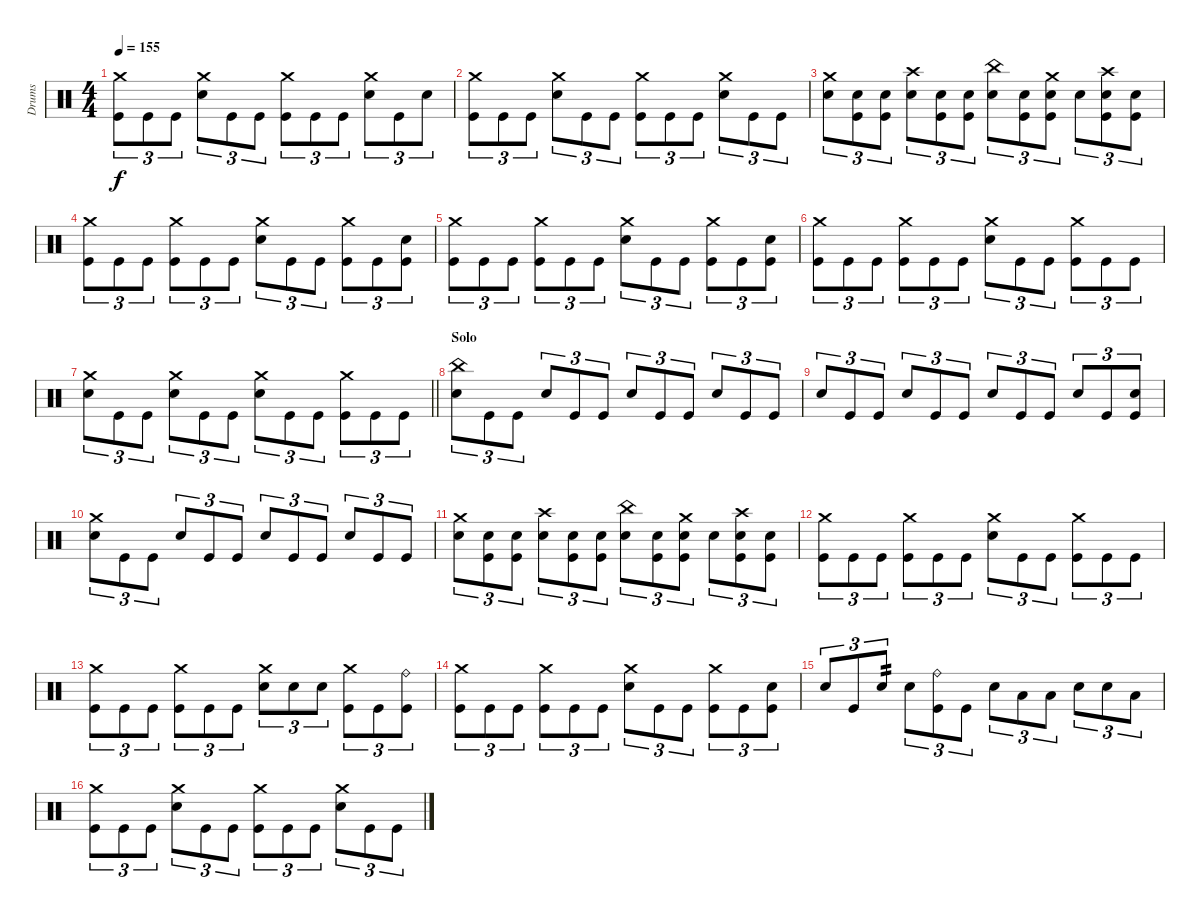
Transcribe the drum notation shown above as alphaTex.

\track ("Drums" "Drums") {instrument percussion}
\staff {score}
\articulation defaults
\ts (4 4)
\tempo 155
\clef neutral
\ks c
("Crash medium (hit)" "Kick (hit)").8{tu (3 2) dy f} "Kick (hit)".8{tu (3 2)} "Kick (hit)".8{tu (3 2)} ("Crash medium (hit)" "Electric Snare (hit)").8{tu (3 2)} "Kick (hit)".8{tu (3 2)} "Kick (hit)".8{tu (3 2)} ("Crash medium (hit)" "Kick (hit)").8{tu (3 2)} "Kick (hit)".8{tu (3 2)} "Kick (hit)".8{tu (3 2)} ("Crash medium (hit)" "Electric Snare (hit)").8{tu (3 2)} "Kick (hit)".8{tu (3 2)} "Electric Snare (hit)".8{tu (3 2)} |
("Crash medium (hit)" "Kick (hit)").8{tu (3 2)} "Kick (hit)".8{tu (3 2)} "Kick (hit)".8{tu (3 2)} ("Crash medium (hit)" "Electric Snare (hit)").8{tu (3 2)} "Kick (hit)".8{tu (3 2)} "Kick (hit)".8{tu (3 2)} ("Crash medium (hit)" "Kick (hit)").8{tu (3 2)} "Kick (hit)".8{tu (3 2)} "Kick (hit)".8{tu (3 2)} ("Crash medium (hit)" "Electric Snare (hit)").8{tu (3 2)} "Kick (hit)".8{tu (3 2)} "Kick (hit)".8{tu (3 2)} |
("Crash medium (hit)" "Electric Snare (hit)").8{tu (3 2)} ("Electric Snare (hit)" "Kick (hit)").8{tu (3 2)} ("Electric Snare (hit)" "Kick (hit)").8{tu (3 2)} ("Crash high (hit)" "Electric Snare (hit)").8{tu (3 2)} ("Electric Snare (hit)" "Kick (hit)").8{tu (3 2)} ("Electric Snare (hit)" "Kick (hit)").8{tu (3 2)} ("China (hit)" "Electric Snare (hit)").8{tu (3 2)} ("Electric Snare (hit)" "Kick (hit)").8{tu (3 2)} ("Crash medium (hit)" "Electric Snare (hit)" "Kick (hit)").8{tu (3 2)} "Electric Snare (hit)".8{tu (3 2)} ("Crash high (hit)" "Electric Snare (hit)" "Kick (hit)").8{tu (3 2)} ("Electric Snare (hit)" "Kick (hit)").8{tu (3 2)} |
("Crash medium (hit)" "Kick (hit)").8{tu (3 2)} "Kick (hit)".8{tu (3 2)} "Kick (hit)".8{tu (3 2)} ("Crash medium (hit)" "Kick (hit)").8{tu (3 2)} "Kick (hit)".8{tu (3 2)} "Kick (hit)".8{tu (3 2)} ("Crash medium (hit)" "Electric Snare (hit)").8{tu (3 2)} "Kick (hit)".8{tu (3 2)} "Kick (hit)".8{tu (3 2)} ("Crash medium (hit)" "Kick (hit)").8{tu (3 2)} "Kick (hit)".8{tu (3 2)} ("Electric Snare (hit)" "Kick (hit)").8{tu (3 2)} |
("Crash medium (hit)" "Kick (hit)").8{tu (3 2)} "Kick (hit)".8{tu (3 2)} "Kick (hit)".8{tu (3 2)} ("Crash medium (hit)" "Kick (hit)").8{tu (3 2)} "Kick (hit)".8{tu (3 2)} "Kick (hit)".8{tu (3 2)} ("Crash medium (hit)" "Electric Snare (hit)").8{tu (3 2)} "Kick (hit)".8{tu (3 2)} "Kick (hit)".8{tu (3 2)} ("Crash medium (hit)" "Kick (hit)").8{tu (3 2)} "Kick (hit)".8{tu (3 2)} ("Electric Snare (hit)" "Kick (hit)").8{tu (3 2)} |
("Crash medium (hit)" "Kick (hit)").8{tu (3 2)} "Kick (hit)".8{tu (3 2)} "Kick (hit)".8{tu (3 2)} ("Crash medium (hit)" "Kick (hit)").8{tu (3 2)} "Kick (hit)".8{tu (3 2)} "Kick (hit)".8{tu (3 2)} ("Crash medium (hit)" "Electric Snare (hit)").8{tu (3 2)} "Kick (hit)".8{tu (3 2)} "Kick (hit)".8{tu (3 2)} ("Crash medium (hit)" "Kick (hit)").8{tu (3 2)} "Kick (hit)".8{tu (3 2)} "Kick (hit)".8{tu (3 2)} |
\barLineRight lightlight
("Crash medium (hit)" "Electric Snare (hit)").8{tu (3 2)} "Kick (hit)".8{tu (3 2)} "Kick (hit)".8{tu (3 2)} ("Crash medium (hit)" "Electric Snare (hit)").8{tu (3 2)} "Kick (hit)".8{tu (3 2)} "Kick (hit)".8{tu (3 2)} ("Crash medium (hit)" "Electric Snare (hit)").8{tu (3 2)} "Kick (hit)".8{tu (3 2)} "Kick (hit)".8{tu (3 2)} ("Crash medium (hit)" "Kick (hit)").8{tu (3 2)} "Kick (hit)".8{tu (3 2)} "Kick (hit)".8{tu (3 2)} |
\section ("" "Solo")
("China (hit)" "Electric Snare (hit)").8{tu (3 2)} "Kick (hit)".8{tu (3 2)} "Kick (hit)".8{tu (3 2)} "Electric Snare (hit)".8{tu (3 2)} "Kick (hit)".8{tu (3 2)} "Kick (hit)".8{tu (3 2)} "Electric Snare (hit)".8{tu (3 2)} "Kick (hit)".8{tu (3 2)} "Kick (hit)".8{tu (3 2)} "Electric Snare (hit)".8{tu (3 2)} "Kick (hit)".8{tu (3 2)} "Kick (hit)".8{tu (3 2)} |
"Electric Snare (hit)".8{tu (3 2)} "Kick (hit)".8{tu (3 2)} "Kick (hit)".8{tu (3 2)} "Electric Snare (hit)".8{tu (3 2)} "Kick (hit)".8{tu (3 2)} "Kick (hit)".8{tu (3 2)} "Electric Snare (hit)".8{tu (3 2)} "Kick (hit)".8{tu (3 2)} "Kick (hit)".8{tu (3 2)} "Electric Snare (hit)".8{tu (3 2)} "Kick (hit)".8{tu (3 2)} ("Electric Snare (hit)" "Kick (hit)").8{tu (3 2)} |
("Crash medium (hit)" "Electric Snare (hit)").8{tu (3 2)} "Kick (hit)".8{tu (3 2)} "Kick (hit)".8{tu (3 2)} "Electric Snare (hit)".8{tu (3 2)} "Kick (hit)".8{tu (3 2)} "Kick (hit)".8{tu (3 2)} "Electric Snare (hit)".8{tu (3 2)} "Kick (hit)".8{tu (3 2)} "Kick (hit)".8{tu (3 2)} "Electric Snare (hit)".8{tu (3 2)} "Kick (hit)".8{tu (3 2)} "Kick (hit)".8{tu (3 2)} |
("Crash medium (hit)" "Electric Snare (hit)").8{tu (3 2)} ("Electric Snare (hit)" "Kick (hit)").8{tu (3 2)} ("Electric Snare (hit)" "Kick (hit)").8{tu (3 2)} ("Crash high (hit)" "Electric Snare (hit)").8{tu (3 2)} ("Electric Snare (hit)" "Kick (hit)").8{tu (3 2)} ("Electric Snare (hit)" "Kick (hit)").8{tu (3 2)} ("China (hit)" "Electric Snare (hit)").8{tu (3 2)} ("Electric Snare (hit)" "Kick (hit)").8{tu (3 2)} ("Crash medium (hit)" "Electric Snare (hit)" "Kick (hit)").8{tu (3 2)} "Electric Snare (hit)".8{tu (3 2)} ("Crash high (hit)" "Electric Snare (hit)" "Kick (hit)").8{tu (3 2)} ("Electric Snare (hit)" "Kick (hit)").8{tu (3 2)} |
("Crash medium (hit)" "Kick (hit)").8{tu (3 2)} "Kick (hit)".8{tu (3 2)} "Kick (hit)".8{tu (3 2)} ("Crash medium (hit)" "Kick (hit)").8{tu (3 2)} "Kick (hit)".8{tu (3 2)} "Kick (hit)".8{tu (3 2)} ("Crash medium (hit)" "Electric Snare (hit)").8{tu (3 2)} "Kick (hit)".8{tu (3 2)} "Kick (hit)".8{tu (3 2)} ("Crash medium (hit)" "Kick (hit)").8{tu (3 2)} "Kick (hit)".8{tu (3 2)} "Kick (hit)".8{tu (3 2)} |
("Crash medium (hit)" "Kick (hit)").8{tu (3 2)} "Kick (hit)".8{tu (3 2)} "Kick (hit)".8{tu (3 2)} ("Crash medium (hit)" "Kick (hit)").8{tu (3 2)} "Kick (hit)".8{tu (3 2)} "Kick (hit)".8{tu (3 2)} ("Crash medium (hit)" "Electric Snare (hit)").8{tu (3 2)} "Electric Snare (hit)".8{tu (3 2)} "Electric Snare (hit)".8{tu (3 2)} ("Crash medium (hit)" "Kick (hit)").8{tu (3 2)} "Kick (hit)".8{tu (3 2)} ("Ride (bell)" "Kick (hit)").8{tu (3 2)} |
("Crash medium (hit)" "Kick (hit)").8{tu (3 2)} "Kick (hit)".8{tu (3 2)} "Kick (hit)".8{tu (3 2)} ("Crash medium (hit)" "Kick (hit)").8{tu (3 2)} "Kick (hit)".8{tu (3 2)} "Kick (hit)".8{tu (3 2)} ("Crash medium (hit)" "Electric Snare (hit)").8{tu (3 2)} "Kick (hit)".8{tu (3 2)} "Kick (hit)".8{tu (3 2)} ("Crash medium (hit)" "Kick (hit)").8{tu (3 2)} "Kick (hit)".8{tu (3 2)} ("Electric Snare (hit)" "Kick (hit)").8{tu (3 2)} |
"Electric Snare (hit)".8{tu (3 2)} "Kick (hit)".8{tu (3 2)} "Electric Snare (hit)".8{tu (3 2) tp 2} "Electric Snare (hit)".8{tu (3 2)} ("Ride (bell)" "Kick (hit)").8{tu (3 2)} "Kick (hit)".8{tu (3 2)} "Electric Snare (hit)".8{tu (3 2)} "Low Tom (hit)".8{tu (3 2)} "Low Tom (hit)".8{tu (3 2)} "Electric Snare (hit)".8{tu (3 2)} "Electric Snare (hit)".8{tu (3 2)} "Low Tom (hit)".8{tu (3 2)} |
("Crash medium (hit)" "Kick (hit)").8{tu (3 2)} "Kick (hit)".8{tu (3 2)} "Kick (hit)".8{tu (3 2)} ("Crash medium (hit)" "Electric Snare (hit)").8{tu (3 2)} "Kick (hit)".8{tu (3 2)} "Kick (hit)".8{tu (3 2)} ("Crash medium (hit)" "Kick (hit)").8{tu (3 2)} "Kick (hit)".8{tu (3 2)} "Kick (hit)".8{tu (3 2)} ("Crash medium (hit)" "Electric Snare (hit)").8{tu (3 2)} "Kick (hit)".8{tu (3 2)} "Kick (hit)".8{tu (3 2)}
